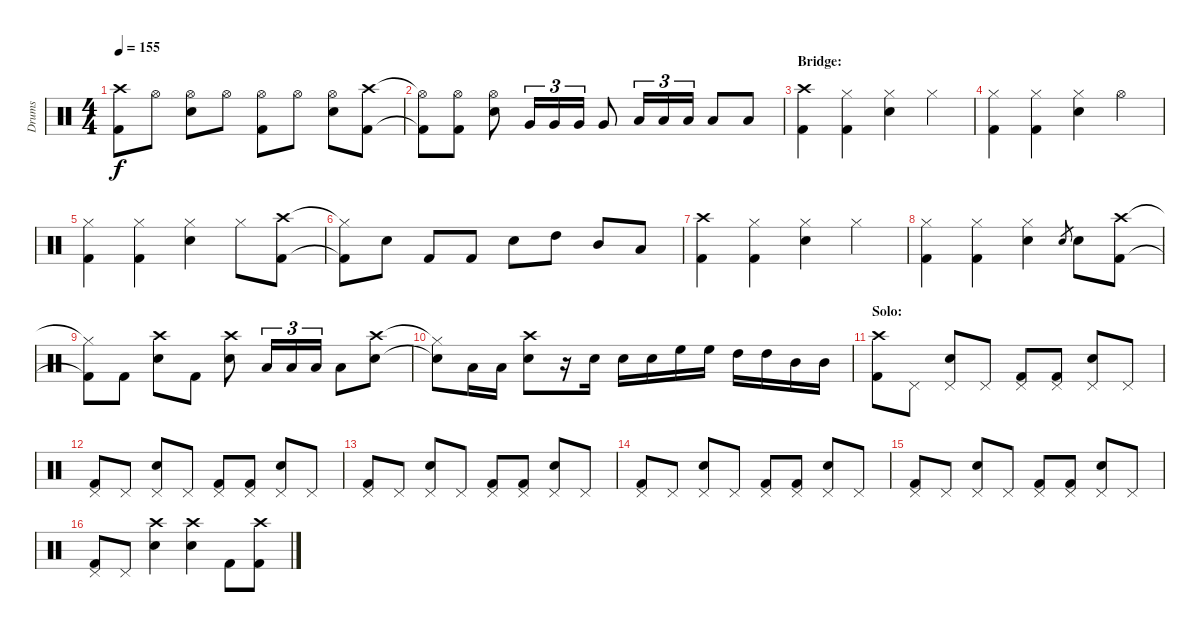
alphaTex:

\track ("Drums" "Drums") {instrument percussion}
\staff {score}
\articulation defaults
\ts (4 4)
\tempo 155
\clef neutral
\ks c
("Crash high (hit)" "Kick (hit) 2").8{dy f} "Hi-Hat (open)".8 ("Hi-Hat (open)" "Electric Snare (hit)").8 "Hi-Hat (open)".8 ("Hi-Hat (open)" "Kick (hit) 2").8 "Hi-Hat (open)".8 ("Hi-Hat (open)" "Electric Snare (hit)").8 ("Crash high (hit)" "Kick (hit) 2").8 |
("Hi-Hat (open)"{t} "Kick (hit) 2"{t}).8 ("Hi-Hat (open)" "Kick (hit) 2").8 ("Hi-Hat (open)" "Electric Snare (hit)").8 "Very Low Tom (hit)".16{tu (3 2)} "Very Low Tom (hit)".16{tu (3 2)} "Very Low Tom (hit)".16{tu (3 2)} "Very Low Tom (hit)".8 "Low Floor Tom (hit)".16{tu (3 2)} "Low Floor Tom (hit)".16{tu (3 2)} "Low Floor Tom (hit)".16{tu (3 2)} "Low Floor Tom (hit)".8 "Low Floor Tom (hit)".8 |
\section ("" "Bridge:")
("Crash high (hit)" "Kick (hit) 2").4 ("Hi-Hat (closed)" "Kick (hit) 2").4 ("Hi-Hat (closed)" "Electric Snare (hit)").4 "Hi-Hat (closed)".4 |
("Hi-Hat (closed)" "Kick (hit) 2").4 ("Hi-Hat (closed)" "Kick (hit) 2").4 ("Hi-Hat (closed)" "Electric Snare (hit)").4 "Hi-Hat (open)".4 |
("Hi-Hat (closed)" "Kick (hit) 2").4 ("Hi-Hat (closed)" "Kick (hit) 2").4 ("Hi-Hat (closed)" "Electric Snare (hit)").4 "Hi-Hat (closed)".8 ("Crash high (hit)" "Kick (hit) 2").8 |
("Hi-Hat (closed)"{t} "Kick (hit) 2"{t}).8 "Electric Snare (hit)".8 "Kick (hit) 2".8 "Kick (hit) 2".8 "Electric Snare (hit)".8 "High Tom (hit)".8 "Mid Tom (hit)".8 "Low Tom (hit)".8 |
("Crash high (hit)" "Kick (hit) 2").4 ("Hi-Hat (closed)" "Kick (hit) 2").4 ("Hi-Hat (closed)" "Electric Snare (hit)").4 "Hi-Hat (closed)".4 |
("Hi-Hat (closed)" "Kick (hit) 2").4 ("Hi-Hat (closed)" "Kick (hit) 2").4 ("Hi-Hat (closed)" "Electric Snare (hit)").4 "Electric Snare (hit)".8{gr} "Electric Snare (hit)".8 ("Crash high (hit)" "Kick (hit) 2").8 |
("Hi-Hat (closed)"{t} "Kick (hit) 2"{t}).8 "Kick (hit) 2".8 ("Crash high (hit)" "Electric Snare (hit)").8 "Kick (hit) 2".8 ("Crash high (hit)" "Electric Snare (hit)").8 "Low Tom (hit)".16{tu (3 2)} "Low Tom (hit)".16{tu (3 2)} "Low Tom (hit)".16{tu (3 2)} "Low Tom (hit)".8 ("Crash high (hit)" "Electric Snare (hit)").8 |
("Hi-Hat (closed)"{t} "Snare (hit)"{t}).8 "Low Tom (hit)".16 "Low Tom (hit)".16 ("Crash high (hit)" "Electric Snare (hit)").8 r.16 "Electric Snare (hit)".16 "Electric Snare (hit)".16 "Electric Snare (hit)".16 "High Floor Tom (hit)".16 "High Floor Tom (hit)".16 "High Tom (hit)".16 "High Tom (hit)".16 "Mid Tom (hit)".16 "Mid Tom (hit)".16 |
\section ("" "Solo:")
("Crash high (hit)" "Kick (hit) 2").8 "Pedal Hi-Hat (hit)".8 ("Pedal Hi-Hat (hit)" "Electric Snare (hit)").8 "Pedal Hi-Hat (hit)".8 ("Pedal Hi-Hat (hit)" "Kick (hit) 2").8 ("Pedal Hi-Hat (hit)" "Kick (hit) 2").8 ("Pedal Hi-Hat (hit)" "Electric Snare (hit)").8 "Pedal Hi-Hat (hit)".8 |
("Pedal Hi-Hat (hit)" "Kick (hit) 2").8 "Pedal Hi-Hat (hit)".8 ("Pedal Hi-Hat (hit)" "Electric Snare (hit)").8 "Pedal Hi-Hat (hit)".8 ("Pedal Hi-Hat (hit)" "Kick (hit) 2").8 ("Pedal Hi-Hat (hit)" "Kick (hit) 2").8 ("Pedal Hi-Hat (hit)" "Electric Snare (hit)").8 "Pedal Hi-Hat (hit)".8 |
("Pedal Hi-Hat (hit)" "Kick (hit) 2").8 "Pedal Hi-Hat (hit)".8 ("Pedal Hi-Hat (hit)" "Electric Snare (hit)").8 "Pedal Hi-Hat (hit)".8 ("Pedal Hi-Hat (hit)" "Kick (hit) 2").8 ("Pedal Hi-Hat (hit)" "Kick (hit) 2").8 ("Pedal Hi-Hat (hit)" "Electric Snare (hit)").8 "Pedal Hi-Hat (hit)".8 |
("Pedal Hi-Hat (hit)" "Kick (hit) 2").8 "Pedal Hi-Hat (hit)".8 ("Pedal Hi-Hat (hit)" "Electric Snare (hit)").8 "Pedal Hi-Hat (hit)".8 ("Pedal Hi-Hat (hit)" "Kick (hit) 2").8 ("Pedal Hi-Hat (hit)" "Kick (hit) 2").8 ("Pedal Hi-Hat (hit)" "Electric Snare (hit)").8 "Pedal Hi-Hat (hit)".8 |
("Pedal Hi-Hat (hit)" "Kick (hit) 2").8 "Pedal Hi-Hat (hit)".8 ("Pedal Hi-Hat (hit)" "Electric Snare (hit)").8 "Pedal Hi-Hat (hit)".8 ("Pedal Hi-Hat (hit)" "Kick (hit) 2").8 ("Pedal Hi-Hat (hit)" "Kick (hit) 2").8 ("Pedal Hi-Hat (hit)" "Electric Snare (hit)").8 "Pedal Hi-Hat (hit)".8 |
("Pedal Hi-Hat (hit)" "Kick (hit) 2").8 "Pedal Hi-Hat (hit)".8 ("Crash high (hit)" "Electric Snare (hit)").4 ("Crash high (hit)" "Electric Snare (hit)").4 "Kick (hit) 2".8 ("Crash high (hit)" "Kick (hit) 2").8
